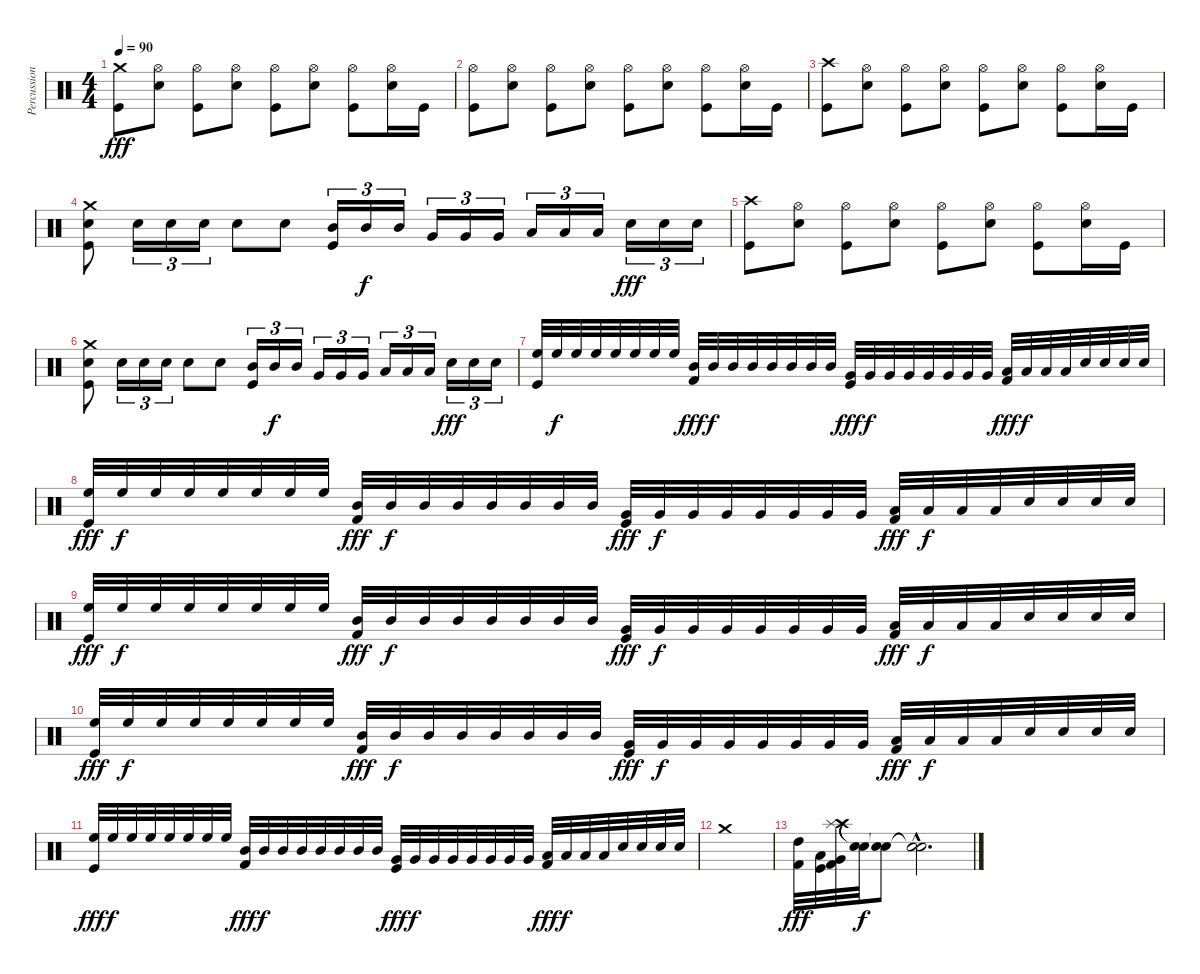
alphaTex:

\track ("Percussion" "Percussion") {instrument percussion}
\staff {score}
\articulation defaults
\ts (4 4)
\tempo 90
\clef neutral
\ks c
("Crash medium (hit)" "Kick (hit)").8{dy fff} ("Hi-Hat (open)" "Electric Snare (hit)").8 ("Hi-Hat (open)" "Kick (hit)").8 ("Hi-Hat (open)" "Electric Snare (hit)").8 ("Hi-Hat (open)" "Kick (hit)").8 ("Hi-Hat (open)" "Electric Snare (hit)").8 ("Hi-Hat (open)" "Kick (hit)").8 ("Hi-Hat (open)" "Electric Snare (hit)").16 "Kick (hit)".16 |
("Hi-Hat (open)" "Kick (hit)").8 ("Hi-Hat (open)" "Electric Snare (hit)").8 ("Hi-Hat (open)" "Kick (hit)").8 ("Hi-Hat (open)" "Electric Snare (hit)").8 ("Hi-Hat (open)" "Kick (hit)").8 ("Hi-Hat (open)" "Electric Snare (hit)").8 ("Hi-Hat (open)" "Kick (hit)").8 ("Hi-Hat (open)" "Electric Snare (hit)").16 "Kick (hit)".16 |
("Crash high (hit)" "Kick (hit)").8 ("Hi-Hat (open)" "Electric Snare (hit)").8 ("Hi-Hat (open)" "Kick (hit)").8 ("Hi-Hat (open)" "Electric Snare (hit)").8 ("Hi-Hat (open)" "Kick (hit)").8 ("Hi-Hat (open)" "Electric Snare (hit)").8 ("Hi-Hat (open)" "Kick (hit)").8 ("Hi-Hat (open)" "Electric Snare (hit)").16 "Kick (hit)".16 |
("Crash medium (hit)" "Electric Snare (hit)" "Kick (hit)").8 "Electric Snare (hit)".16{tu (3 2)} "Electric Snare (hit)".16{tu (3 2)} "Electric Snare (hit)".16{tu (3 2)} "Electric Snare (hit)".8 "Electric Snare (hit)".8 ("Mid Tom (hit)" "Kick (hit)").16{tu (3 2)} "Mid Tom (hit)".16{tu (3 2) dy f} "Mid Tom (hit)".16{tu (3 2)} "Very Low Tom (hit)".16{tu (3 2)} "Very Low Tom (hit)".16{tu (3 2)} "Very Low Tom (hit)".16{tu (3 2)} "Low Floor Tom (hit)".16{tu (3 2)} "Low Floor Tom (hit)".16{tu (3 2)} "Low Floor Tom (hit)".16{tu (3 2)} "Electric Snare (hit)".16{tu (3 2) dy fff} "Electric Snare (hit)".16{tu (3 2)} "Electric Snare (hit)".16{tu (3 2)} |
("Crash high (hit)" "Kick (hit)").8 ("Hi-Hat (open)" "Electric Snare (hit)").8 ("Hi-Hat (open)" "Kick (hit)").8 ("Hi-Hat (open)" "Electric Snare (hit)").8 ("Hi-Hat (open)" "Kick (hit)").8 ("Hi-Hat (open)" "Electric Snare (hit)").8 ("Hi-Hat (open)" "Kick (hit)").8 ("Hi-Hat (open)" "Electric Snare (hit)").16 "Kick (hit)".16 |
("Crash medium (hit)" "Electric Snare (hit)" "Kick (hit)").8 "Electric Snare (hit)".16{tu (3 2)} "Electric Snare (hit)".16{tu (3 2)} "Electric Snare (hit)".16{tu (3 2)} "Electric Snare (hit)".8 "Electric Snare (hit)".8 ("Mid Tom (hit)" "Kick (hit)").16{tu (3 2)} "Mid Tom (hit)".16{tu (3 2) dy f} "Mid Tom (hit)".16{tu (3 2)} "Very Low Tom (hit)".16{tu (3 2)} "Very Low Tom (hit)".16{tu (3 2)} "Very Low Tom (hit)".16{tu (3 2)} "Low Floor Tom (hit)".16{tu (3 2)} "Low Floor Tom (hit)".16{tu (3 2)} "Low Floor Tom (hit)".16{tu (3 2)} "Electric Snare (hit)".16{tu (3 2) dy fff} "Electric Snare (hit)".16{tu (3 2)} "Electric Snare (hit)".16{tu (3 2)} |
("High Floor Tom (hit)" "Kick (hit)").32 "High Floor Tom (hit)".32{dy f} "High Floor Tom (hit)".32 "High Floor Tom (hit)".32 "High Floor Tom (hit)".32 "High Floor Tom (hit)".32 "High Floor Tom (hit)".32 "High Floor Tom (hit)".32 ("Mid Tom (hit)" "Kick (hit) 2").32{dy fff} "Mid Tom (hit)".32{dy f} "Mid Tom (hit)".32 "Mid Tom (hit)".32 "Mid Tom (hit)".32 "Mid Tom (hit)".32 "Mid Tom (hit)".32 "Mid Tom (hit)".32 ("Very Low Tom (hit)" "Kick (hit)").32{dy fff} "Very Low Tom (hit)".32{dy f} "Very Low Tom (hit)".32 "Very Low Tom (hit)".32 "Very Low Tom (hit)".32 "Very Low Tom (hit)".32 "Very Low Tom (hit)".32 "Very Low Tom (hit)".32 ("Low Floor Tom (hit)" "Kick (hit) 2").32{dy fff} "Low Floor Tom (hit)".32{dy f} "Low Floor Tom (hit)".32 "Low Floor Tom (hit)".32 "Electric Snare (hit)".32 "Electric Snare (hit)".32 "Electric Snare (hit)".32 "Electric Snare (hit)".32 |
("High Floor Tom (hit)" "Kick (hit)").32{dy fff} "High Floor Tom (hit)".32{dy f} "High Floor Tom (hit)".32 "High Floor Tom (hit)".32 "High Floor Tom (hit)".32 "High Floor Tom (hit)".32 "High Floor Tom (hit)".32 "High Floor Tom (hit)".32 ("Mid Tom (hit)" "Kick (hit) 2").32{dy fff} "Mid Tom (hit)".32{dy f} "Mid Tom (hit)".32 "Mid Tom (hit)".32 "Mid Tom (hit)".32 "Mid Tom (hit)".32 "Mid Tom (hit)".32 "Mid Tom (hit)".32 ("Very Low Tom (hit)" "Kick (hit)").32{dy fff} "Very Low Tom (hit)".32{dy f} "Very Low Tom (hit)".32 "Very Low Tom (hit)".32 "Very Low Tom (hit)".32 "Very Low Tom (hit)".32 "Very Low Tom (hit)".32 "Very Low Tom (hit)".32 ("Low Floor Tom (hit)" "Kick (hit) 2").32{dy fff} "Low Floor Tom (hit)".32{dy f} "Low Floor Tom (hit)".32 "Low Floor Tom (hit)".32 "Electric Snare (hit)".32 "Electric Snare (hit)".32 "Electric Snare (hit)".32 "Electric Snare (hit)".32 |
("High Floor Tom (hit)" "Kick (hit)").32{dy fff} "High Floor Tom (hit)".32{dy f} "High Floor Tom (hit)".32 "High Floor Tom (hit)".32 "High Floor Tom (hit)".32 "High Floor Tom (hit)".32 "High Floor Tom (hit)".32 "High Floor Tom (hit)".32 ("Mid Tom (hit)" "Kick (hit) 2").32{dy fff} "Mid Tom (hit)".32{dy f} "Mid Tom (hit)".32 "Mid Tom (hit)".32 "Mid Tom (hit)".32 "Mid Tom (hit)".32 "Mid Tom (hit)".32 "Mid Tom (hit)".32 ("Very Low Tom (hit)" "Kick (hit)").32{dy fff} "Very Low Tom (hit)".32{dy f} "Very Low Tom (hit)".32 "Very Low Tom (hit)".32 "Very Low Tom (hit)".32 "Very Low Tom (hit)".32 "Very Low Tom (hit)".32 "Very Low Tom (hit)".32 ("Low Floor Tom (hit)" "Kick (hit) 2").32{dy fff} "Low Floor Tom (hit)".32{dy f} "Low Floor Tom (hit)".32 "Low Floor Tom (hit)".32 "Electric Snare (hit)".32 "Electric Snare (hit)".32 "Electric Snare (hit)".32 "Electric Snare (hit)".32 |
("High Floor Tom (hit)" "Kick (hit)").32{dy fff} "High Floor Tom (hit)".32{dy f} "High Floor Tom (hit)".32 "High Floor Tom (hit)".32 "High Floor Tom (hit)".32 "High Floor Tom (hit)".32 "High Floor Tom (hit)".32 "High Floor Tom (hit)".32 ("Mid Tom (hit)" "Kick (hit) 2").32{dy fff} "Mid Tom (hit)".32{dy f} "Mid Tom (hit)".32 "Mid Tom (hit)".32 "Mid Tom (hit)".32 "Mid Tom (hit)".32 "Mid Tom (hit)".32 "Mid Tom (hit)".32 ("Very Low Tom (hit)" "Kick (hit)").32{dy fff} "Very Low Tom (hit)".32{dy f} "Very Low Tom (hit)".32 "Very Low Tom (hit)".32 "Very Low Tom (hit)".32 "Very Low Tom (hit)".32 "Very Low Tom (hit)".32 "Very Low Tom (hit)".32 ("Low Floor Tom (hit)" "Kick (hit) 2").32{dy fff} "Low Floor Tom (hit)".32{dy f} "Low Floor Tom (hit)".32 "Low Floor Tom (hit)".32 "Electric Snare (hit)".32 "Electric Snare (hit)".32 "Electric Snare (hit)".32 "Electric Snare (hit)".32 |
("High Floor Tom (hit)" "Kick (hit)").32{dy fff} "High Floor Tom (hit)".32{dy f} "High Floor Tom (hit)".32 "High Floor Tom (hit)".32 "High Floor Tom (hit)".32 "High Floor Tom (hit)".32 "High Floor Tom (hit)".32 "High Floor Tom (hit)".32 ("Mid Tom (hit)" "Kick (hit) 2").32{dy fff} "Mid Tom (hit)".32{dy f} "Mid Tom (hit)".32 "Mid Tom (hit)".32 "Mid Tom (hit)".32 "Mid Tom (hit)".32 "Mid Tom (hit)".32 "Mid Tom (hit)".32 ("Very Low Tom (hit)" "Kick (hit)").32{dy fff} "Very Low Tom (hit)".32{dy f} "Very Low Tom (hit)".32 "Very Low Tom (hit)".32 "Very Low Tom (hit)".32 "Very Low Tom (hit)".32 "Very Low Tom (hit)".32 "Very Low Tom (hit)".32 ("Low Floor Tom (hit)" "Kick (hit) 2").32{dy fff} "Low Floor Tom (hit)".32{dy f} "Low Floor Tom (hit)".32 "Low Floor Tom (hit)".32 "Electric Snare (hit)".32 "Electric Snare (hit)".32 "Electric Snare (hit)".32 "Electric Snare (hit)".32 |
"Crash medium (hit)".1 |
("High Tom (hit)" "Kick (hit) 2").32{dy fff} ("Low Tom (hit)" "Kick (hit)").32 ("Crash high (hit)" "Splash (hit)" "Very Low Tom (hit)" "Kick (hit) 2").32 ("Snare (hit)"{t} "Snare (hit)"{t}).32{dy f} ("Snare (hit)"{t} "Snare (hit)"{t}).8 ("Snare (hit)"{hac t} "Snare (hit)"{hac t}).2{d}
